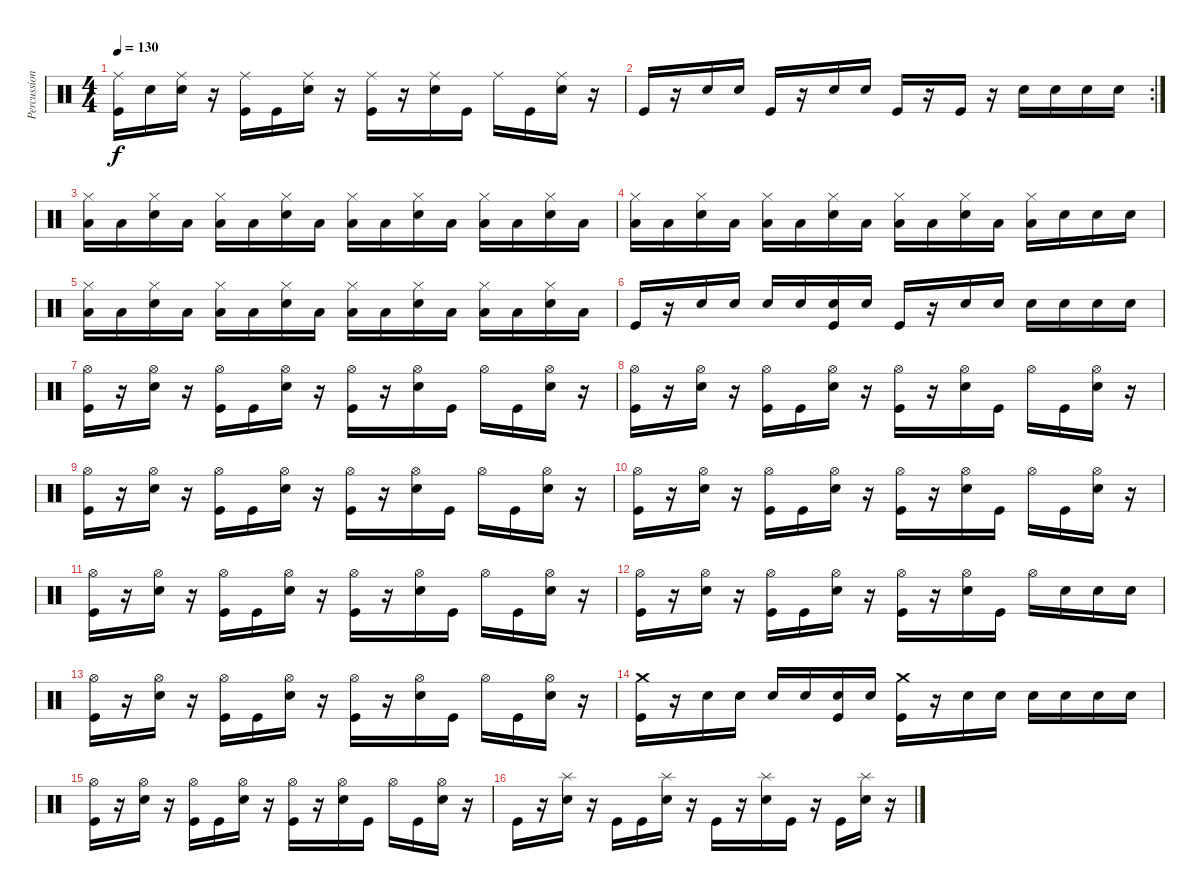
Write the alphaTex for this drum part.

\track ("Percussion" "Percussion") {instrument percussion}
\staff {score}
\articulation defaults
\ts (4 4)
\tempo 130
\clef neutral
\ks c
("Ride (middle)" "Kick (hit)").16{dy f} "Snare (hit)".16 ("Ride (middle)" "Electric Snare (hit)").16 r.16 ("Ride (middle)" "Kick (hit)").16 "Kick (hit)".16 ("Ride (middle)" "Electric Snare (hit)").16 r.16 ("Ride (middle)" "Kick (hit)").16 r.16 ("Ride (middle)" "Electric Snare (hit)").16 "Kick (hit)".16 "Ride (middle)".16 "Kick (hit)".16 ("Ride (middle)" "Electric Snare (hit)").16 r.16 |
\rc 2 "Kick (hit)".16
r.16 "Electric Snare (hit)".16 "Electric Snare (hit)".16 "Kick (hit)".16 r.16 "Electric Snare (hit)".16 "Electric Snare (hit)".16 "Kick (hit)".16 r.16 "Kick (hit)".16 r.16 "Electric Snare (hit)".16 "Electric Snare (hit)".16 "Electric Snare (hit)".16 "Electric Snare (hit)".16 |
("Hi-Hat (closed)" "Low Floor Tom (hit)").16 "Low Floor Tom (hit)".16 ("Hi-Hat (closed)" "Electric Snare (hit)").16 "Low Floor Tom (hit)".16 ("Hi-Hat (closed)" "Low Floor Tom (hit)").16 "Low Floor Tom (hit)".16 ("Hi-Hat (closed)" "Electric Snare (hit)").16 "Low Floor Tom (hit)".16 ("Hi-Hat (closed)" "Low Floor Tom (hit)").16 "Low Floor Tom (hit)".16 ("Hi-Hat (closed)" "Electric Snare (hit)").16 "Low Floor Tom (hit)".16 ("Hi-Hat (closed)" "Low Floor Tom (hit)").16 "Low Floor Tom (hit)".16 ("Hi-Hat (closed)" "Electric Snare (hit)").16 "Low Floor Tom (hit)".16 |
("Hi-Hat (closed)" "Low Floor Tom (hit)").16 "Low Floor Tom (hit)".16 ("Hi-Hat (closed)" "Electric Snare (hit)").16 "Low Floor Tom (hit)".16 ("Hi-Hat (closed)" "Low Floor Tom (hit)").16 "Low Floor Tom (hit)".16 ("Hi-Hat (closed)" "Electric Snare (hit)").16 "Low Floor Tom (hit)".16 ("Hi-Hat (closed)" "Low Floor Tom (hit)").16 "Low Floor Tom (hit)".16 ("Hi-Hat (closed)" "Electric Snare (hit)").16 "Low Floor Tom (hit)".16 ("Hi-Hat (closed)" "Low Floor Tom (hit)").16 "Electric Snare (hit)".16 "Electric Snare (hit)".16 "Electric Snare (hit)".16 |
("Hi-Hat (closed)" "Low Floor Tom (hit)").16 "Low Floor Tom (hit)".16 ("Hi-Hat (closed)" "Electric Snare (hit)").16 "Low Floor Tom (hit)".16 ("Hi-Hat (closed)" "Low Floor Tom (hit)").16 "Low Floor Tom (hit)".16 ("Hi-Hat (closed)" "Electric Snare (hit)").16 "Low Floor Tom (hit)".16 ("Hi-Hat (closed)" "Low Floor Tom (hit)").16 "Low Floor Tom (hit)".16 ("Hi-Hat (closed)" "Electric Snare (hit)").16 "Low Floor Tom (hit)".16 ("Hi-Hat (closed)" "Low Floor Tom (hit)").16 "Low Floor Tom (hit)".16 ("Hi-Hat (closed)" "Electric Snare (hit)").16 "Low Floor Tom (hit)".16 |
"Kick (hit)".16 r.16 "Electric Snare (hit)".16 "Electric Snare (hit)".16 "Electric Snare (hit)".16 "Electric Snare (hit)".16 ("Electric Snare (hit)" "Kick (hit)").16 "Electric Snare (hit)".16 "Kick (hit)".16 r.16 "Electric Snare (hit)".16 "Electric Snare (hit)".16 "Electric Snare (hit)".16 "Electric Snare (hit)".16 "Electric Snare (hit)".16 "Electric Snare (hit)".16 |
("Hi-Hat (open)" "Kick (hit)").16 r.16 ("Hi-Hat (open)" "Electric Snare (hit)").16 r.16 ("Hi-Hat (open)" "Kick (hit)").16 "Kick (hit)".16 ("Hi-Hat (open)" "Electric Snare (hit)").16 r.16 ("Hi-Hat (open)" "Kick (hit)").16 r.16 ("Hi-Hat (open)" "Electric Snare (hit)").16 "Kick (hit)".16 "Hi-Hat (open)".16 "Kick (hit)".16 ("Hi-Hat (open)" "Electric Snare (hit)").16 r.16 |
("Hi-Hat (open)" "Kick (hit)").16 r.16 ("Hi-Hat (open)" "Electric Snare (hit)").16 r.16 ("Hi-Hat (open)" "Kick (hit)").16 "Kick (hit)".16 ("Hi-Hat (open)" "Electric Snare (hit)").16 r.16 ("Hi-Hat (open)" "Kick (hit)").16 r.16 ("Hi-Hat (open)" "Electric Snare (hit)").16 "Kick (hit)".16 "Hi-Hat (open)".16 "Kick (hit)".16 ("Hi-Hat (open)" "Electric Snare (hit)").16 r.16 |
("Hi-Hat (open)" "Kick (hit)").16 r.16 ("Hi-Hat (open)" "Electric Snare (hit)").16 r.16 ("Hi-Hat (open)" "Kick (hit)").16 "Kick (hit)".16 ("Hi-Hat (open)" "Electric Snare (hit)").16 r.16 ("Hi-Hat (open)" "Kick (hit)").16 r.16 ("Hi-Hat (open)" "Electric Snare (hit)").16 "Kick (hit)".16 "Hi-Hat (open)".16 "Kick (hit)".16 ("Hi-Hat (open)" "Electric Snare (hit)").16 r.16 |
("Hi-Hat (open)" "Kick (hit)").16 r.16 ("Hi-Hat (open)" "Electric Snare (hit)").16 r.16 ("Hi-Hat (open)" "Kick (hit)").16 "Kick (hit)".16 ("Hi-Hat (open)" "Electric Snare (hit)").16 r.16 ("Hi-Hat (open)" "Kick (hit)").16 r.16 ("Hi-Hat (open)" "Electric Snare (hit)").16 "Kick (hit)".16 "Hi-Hat (open)".16 "Kick (hit)".16 ("Hi-Hat (open)" "Electric Snare (hit)").16 r.16 |
("Hi-Hat (open)" "Kick (hit)").16 r.16 ("Hi-Hat (open)" "Electric Snare (hit)").16 r.16 ("Hi-Hat (open)" "Kick (hit)").16 "Kick (hit)".16 ("Hi-Hat (open)" "Electric Snare (hit)").16 r.16 ("Hi-Hat (open)" "Kick (hit)").16 r.16 ("Hi-Hat (open)" "Electric Snare (hit)").16 "Kick (hit)".16 "Hi-Hat (open)".16 "Kick (hit)".16 ("Hi-Hat (open)" "Electric Snare (hit)").16 r.16 |
("Hi-Hat (open)" "Kick (hit)").16 r.16 ("Hi-Hat (open)" "Electric Snare (hit)").16 r.16 ("Hi-Hat (open)" "Kick (hit)").16 "Kick (hit)".16 ("Hi-Hat (open)" "Electric Snare (hit)").16 r.16 ("Hi-Hat (open)" "Kick (hit)").16 r.16 ("Hi-Hat (open)" "Electric Snare (hit)").16 "Kick (hit)".16 "Hi-Hat (open)".16 "Electric Snare (hit)".16 "Electric Snare (hit)".16 "Electric Snare (hit)".16 |
("Hi-Hat (open)" "Kick (hit)").16 r.16 ("Hi-Hat (open)" "Electric Snare (hit)").16 r.16 ("Hi-Hat (open)" "Kick (hit)").16 "Kick (hit)".16 ("Hi-Hat (open)" "Electric Snare (hit)").16 r.16 ("Hi-Hat (open)" "Kick (hit)").16 r.16 ("Hi-Hat (open)" "Electric Snare (hit)").16 "Kick (hit)".16 "Hi-Hat (open)".16 "Kick (hit)".16 ("Hi-Hat (open)" "Electric Snare (hit)").16 r.16 |
("Crash medium (hit)" "Kick (hit)").16 r.16 "Electric Snare (hit)".16 "Electric Snare (hit)".16 "Electric Snare (hit)".16 "Electric Snare (hit)".16 ("Electric Snare (hit)" "Kick (hit)").16 "Electric Snare (hit)".16 ("Crash medium (hit)" "Kick (hit)").16 r.16 "Electric Snare (hit)".16 "Electric Snare (hit)".16 "Electric Snare (hit)".16 "Electric Snare (hit)".16 "Electric Snare (hit)".16 "Electric Snare (hit)".16 |
("Hi-Hat (open)" "Kick (hit)").16 r.16 ("Hi-Hat (open)" "Electric Snare (hit)").16 r.16 ("Hi-Hat (open)" "Kick (hit)").16 "Kick (hit)".16 ("Hi-Hat (open)" "Electric Snare (hit)").16 r.16 ("Hi-Hat (open)" "Kick (hit)").16 r.16 ("Hi-Hat (open)" "Electric Snare (hit)").16 "Kick (hit)".16 "Hi-Hat (open)".16 "Kick (hit)".16 ("Hi-Hat (open)" "Electric Snare (hit)").16 r.16 |
"Kick (hit)".16 r.16 ("Splash (hit)" "Electric Snare (hit)").16 r.16 "Kick (hit)".16 "Kick (hit)".16 ("Splash (hit)" "Electric Snare (hit)").16 r.16 "Kick (hit)".16 r.16 ("Splash (hit)" "Electric Snare (hit)").16 "Kick (hit)".16 r.16 "Kick (hit)".16 ("Splash (hit)" "Electric Snare (hit)").16 r.16
